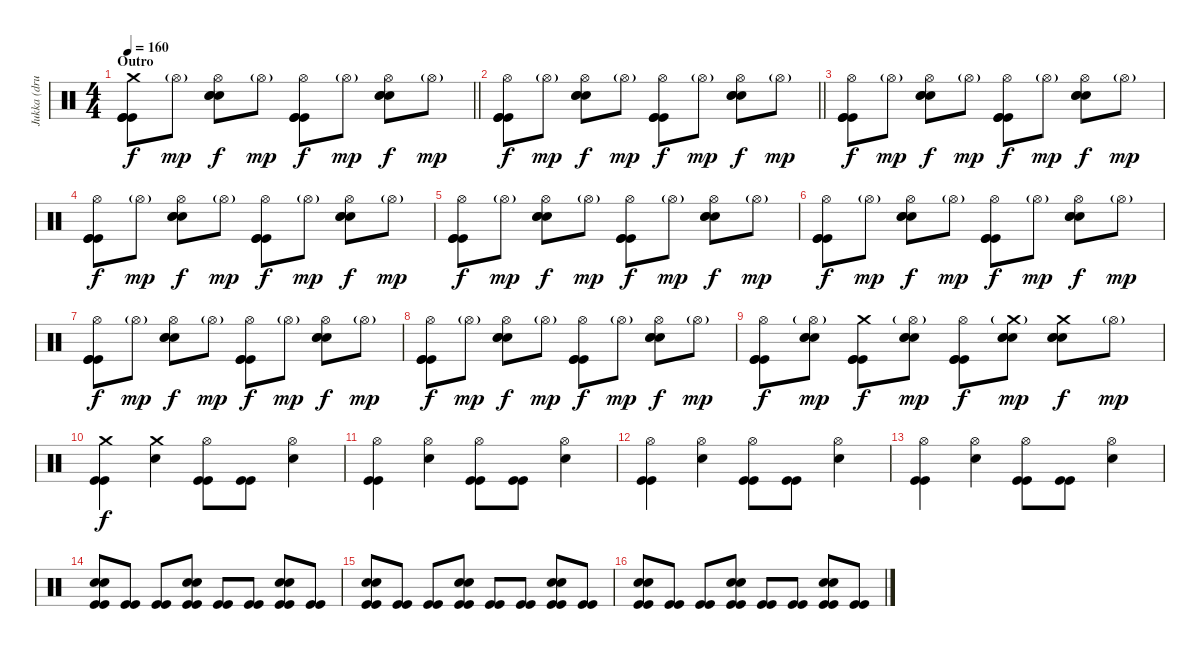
\track ("Jukka (drums)" "Jukka (dru") {instrument percussion}
\staff {score}
\articulation defaults
\ts (4 4)
\section ("" "Outro")
\tempo 160
\clef neutral
\barLineRight lightlight
\ks c
("Crash medium (hit)" "Kick (hit)" "Kick (hit)" "Kick (hit)").8{dy f} "Hi-Hat (open)"{g}.8{dy mp} ("Hi-Hat (open)" "Electric Snare (hit)" "Electric Snare (hit)" "Electric Snare (hit)").8{dy f} "Hi-Hat (open)"{g}.8{dy mp} ("Hi-Hat (open)" "Kick (hit)" "Kick (hit)" "Kick (hit)").8{dy f} "Hi-Hat (open)"{g}.8{dy mp} ("Hi-Hat (open)" "Electric Snare (hit)" "Electric Snare (hit)" "Electric Snare (hit)").8{dy f} "Hi-Hat (open)"{g}.8{dy mp} |
\barLineRight lightlight
("Hi-Hat (open)" "Kick (hit)" "Kick (hit)" "Kick (hit)").8{dy f} "Hi-Hat (open)"{g}.8{dy mp} ("Hi-Hat (open)" "Electric Snare (hit)" "Electric Snare (hit)" "Electric Snare (hit)").8{dy f} "Hi-Hat (open)"{g}.8{dy mp} ("Hi-Hat (open)" "Kick (hit)" "Kick (hit)" "Kick (hit)").8{dy f} "Hi-Hat (open)"{g}.8{dy mp} ("Hi-Hat (open)" "Electric Snare (hit)" "Electric Snare (hit)" "Electric Snare (hit)").8{dy f} "Hi-Hat (open)"{g}.8{dy mp} |
("Hi-Hat (open)" "Kick (hit)" "Kick (hit)" "Kick (hit)").8{dy f} "Hi-Hat (open)"{g}.8{dy mp} ("Hi-Hat (open)" "Electric Snare (hit)" "Electric Snare (hit)" "Electric Snare (hit)").8{dy f} "Hi-Hat (open)"{g}.8{dy mp} ("Hi-Hat (open)" "Kick (hit)" "Kick (hit)" "Kick (hit)").8{dy f} "Hi-Hat (open)"{g}.8{dy mp} ("Hi-Hat (open)" "Electric Snare (hit)" "Electric Snare (hit)" "Electric Snare (hit)").8{dy f} "Hi-Hat (open)"{g}.8{dy mp} |
("Hi-Hat (open)" "Kick (hit)" "Kick (hit)" "Kick (hit)").8{dy f} "Hi-Hat (open)"{g}.8{dy mp} ("Hi-Hat (open)" "Electric Snare (hit)" "Electric Snare (hit)" "Electric Snare (hit)").8{dy f} "Hi-Hat (open)"{g}.8{dy mp} ("Hi-Hat (open)" "Kick (hit)" "Kick (hit)" "Kick (hit)").8{dy f} "Hi-Hat (open)"{g}.8{dy mp} ("Hi-Hat (open)" "Electric Snare (hit)" "Electric Snare (hit)" "Electric Snare (hit)").8{dy f} "Hi-Hat (open)"{g}.8{dy mp} |
("Hi-Hat (open)" "Kick (hit)" "Kick (hit)" "Kick (hit)").8{dy f} "Hi-Hat (open)"{g}.8{dy mp} ("Hi-Hat (open)" "Electric Snare (hit)" "Electric Snare (hit)" "Electric Snare (hit)").8{dy f} "Hi-Hat (open)"{g}.8{dy mp} ("Hi-Hat (open)" "Kick (hit)" "Kick (hit)" "Kick (hit)").8{dy f} "Hi-Hat (open)"{g}.8{dy mp} ("Hi-Hat (open)" "Electric Snare (hit)" "Electric Snare (hit)" "Electric Snare (hit)").8{dy f} "Hi-Hat (open)"{g}.8{dy mp} |
("Hi-Hat (open)" "Kick (hit)" "Kick (hit)" "Kick (hit)").8{dy f} "Hi-Hat (open)"{g}.8{dy mp} ("Hi-Hat (open)" "Electric Snare (hit)" "Electric Snare (hit)" "Electric Snare (hit)").8{dy f} "Hi-Hat (open)"{g}.8{dy mp} ("Hi-Hat (open)" "Kick (hit)" "Kick (hit)" "Kick (hit)").8{dy f} "Hi-Hat (open)"{g}.8{dy mp} ("Hi-Hat (open)" "Electric Snare (hit)" "Electric Snare (hit)" "Electric Snare (hit)").8{dy f} "Hi-Hat (open)"{g}.8{dy mp} |
("Hi-Hat (open)" "Kick (hit)" "Kick (hit)" "Kick (hit)").8{dy f} "Hi-Hat (open)"{g}.8{dy mp} ("Hi-Hat (open)" "Electric Snare (hit)" "Electric Snare (hit)" "Electric Snare (hit)").8{dy f} "Hi-Hat (open)"{g}.8{dy mp} ("Hi-Hat (open)" "Kick (hit)" "Kick (hit)" "Kick (hit)").8{dy f} "Hi-Hat (open)"{g}.8{dy mp} ("Hi-Hat (open)" "Electric Snare (hit)" "Electric Snare (hit)" "Electric Snare (hit)").8{dy f} "Hi-Hat (open)"{g}.8{dy mp} |
("Hi-Hat (open)" "Kick (hit)" "Kick (hit)" "Kick (hit)").8{dy f} "Hi-Hat (open)"{g}.8{dy mp} ("Hi-Hat (open)" "Electric Snare (hit)" "Electric Snare (hit)" "Electric Snare (hit)").8{dy f} "Hi-Hat (open)"{g}.8{dy mp} ("Hi-Hat (open)" "Kick (hit)" "Kick (hit)" "Kick (hit)").8{dy f} "Hi-Hat (open)"{g}.8{dy mp} ("Hi-Hat (open)" "Electric Snare (hit)" "Electric Snare (hit)" "Electric Snare (hit)").8{dy f} "Hi-Hat (open)"{g}.8{dy mp} |
("Hi-Hat (open)" "Kick (hit)" "Kick (hit)" "Kick (hit)").8{dy f} ("Hi-Hat (open)"{g} "Electric Snare (hit)" "Electric Snare (hit)" "Electric Snare (hit)").8{dy mp} ("Crash medium (hit)" "Kick (hit)" "Kick (hit)" "Kick (hit)").8{dy f} ("Hi-Hat (open)"{g} "Electric Snare (hit)" "Electric Snare (hit)" "Electric Snare (hit)").8{dy mp} ("Hi-Hat (open)" "Kick (hit)" "Kick (hit)" "Kick (hit)").8{dy f} ("Crash medium (hit)"{g} "Electric Snare (hit)" "Electric Snare (hit)" "Electric Snare (hit)").8{dy mp} ("Crash medium (hit)" "Electric Snare (hit)" "Electric Snare (hit)" "Electric Snare (hit)").8{dy f} "Hi-Hat (open)"{g}.8{dy mp} |
("Crash medium (hit)" "Kick (hit)" "Kick (hit)").4{dy f} ("Crash medium (hit)" "Electric Snare (hit)").4 ("Hi-Hat (open)" "Kick (hit)" "Kick (hit)").8 ("Kick (hit)" "Kick (hit)").8 ("Hi-Hat (open)" "Electric Snare (hit)").4 |
("Hi-Hat (open)" "Kick (hit)" "Kick (hit)").4 ("Hi-Hat (open)" "Electric Snare (hit)").4 ("Hi-Hat (open)" "Kick (hit)" "Kick (hit)").8 ("Kick (hit)" "Kick (hit)").8 ("Hi-Hat (open)" "Electric Snare (hit)").4 |
("Hi-Hat (open)" "Kick (hit)" "Kick (hit)").4 ("Hi-Hat (open)" "Electric Snare (hit)").4 ("Hi-Hat (open)" "Kick (hit)" "Kick (hit)").8 ("Kick (hit)" "Kick (hit)").8 ("Hi-Hat (open)" "Electric Snare (hit)").4 |
("Hi-Hat (open)" "Kick (hit)" "Kick (hit)").4 ("Hi-Hat (open)" "Electric Snare (hit)").4 ("Hi-Hat (open)" "Kick (hit)" "Kick (hit)").8 ("Kick (hit)" "Kick (hit)").8 ("Hi-Hat (open)" "Electric Snare (hit)").4 |
("Electric Snare (hit)" "Electric Snare (hit)" "Kick (hit)" "Kick (hit)").8 ("Kick (hit)" "Kick (hit)").8 ("Kick (hit)" "Kick (hit)").8 ("Electric Snare (hit)" "Electric Snare (hit)" "Kick (hit)" "Kick (hit)").8 ("Kick (hit)" "Kick (hit)").8 ("Kick (hit)" "Kick (hit)").8 ("Electric Snare (hit)" "Electric Snare (hit)" "Kick (hit)" "Kick (hit)").8 ("Kick (hit)" "Kick (hit)").8 |
("Electric Snare (hit)" "Electric Snare (hit)" "Kick (hit)" "Kick (hit)").8 ("Kick (hit)" "Kick (hit)").8 ("Kick (hit)" "Kick (hit)").8 ("Electric Snare (hit)" "Electric Snare (hit)" "Kick (hit)" "Kick (hit)").8 ("Kick (hit)" "Kick (hit)").8 ("Kick (hit)" "Kick (hit)").8 ("Electric Snare (hit)" "Electric Snare (hit)" "Kick (hit)" "Kick (hit)").8 ("Kick (hit)" "Kick (hit)").8 |
("Electric Snare (hit)" "Electric Snare (hit)" "Kick (hit)" "Kick (hit)").8 ("Kick (hit)" "Kick (hit)").8 ("Kick (hit)" "Kick (hit)").8 ("Electric Snare (hit)" "Electric Snare (hit)" "Kick (hit)" "Kick (hit)").8 ("Kick (hit)" "Kick (hit)").8 ("Kick (hit)" "Kick (hit)").8 ("Electric Snare (hit)" "Electric Snare (hit)" "Kick (hit)" "Kick (hit)").8 ("Kick (hit)" "Kick (hit)").8
